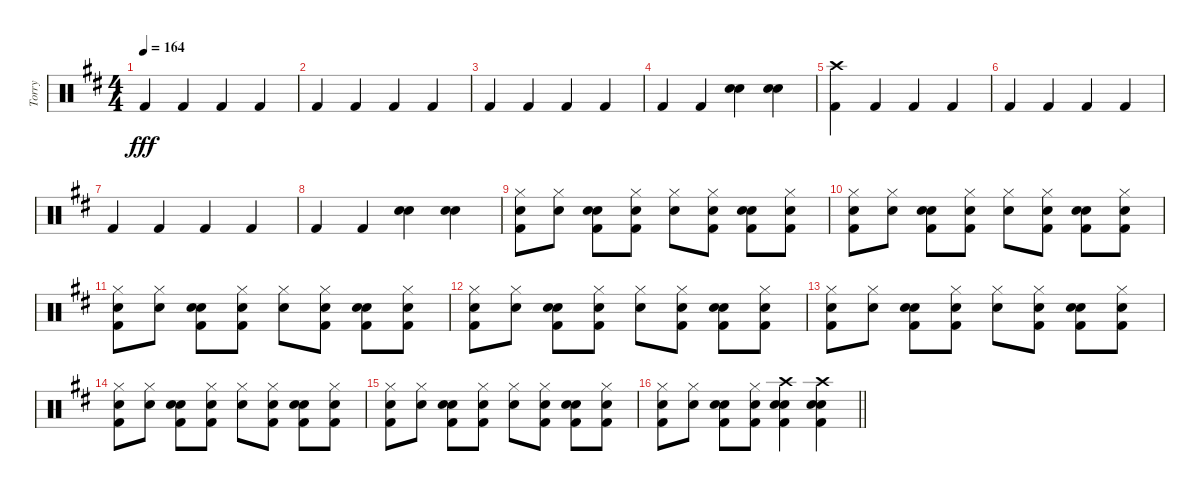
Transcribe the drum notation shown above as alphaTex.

\track ("Torry" "Torry") {instrument percussion}
\staff {score}
\articulation defaults
\ts (4 4)
\tempo 164
\clef neutral
\ks d "Kick (hit) 2".4{dy fff} "Kick (hit) 2".4 "Kick (hit) 2".4 "Kick (hit) 2".4
|
"Kick (hit) 2".4 "Kick (hit) 2".4 "Kick (hit) 2".4 "Kick (hit) 2".4 |
"Kick (hit) 2".4 "Kick (hit) 2".4 "Kick (hit) 2".4 "Kick (hit) 2".4 |
"Kick (hit) 2".4 "Kick (hit) 2".4 ("Snare (hit) 2" "Electric Snare (hit)").4 ("Snare (hit) 2" "Electric Snare (hit)").4 |
("Crash high (hit)" "Kick (hit) 2").4 "Kick (hit) 2".4 "Kick (hit) 2".4 "Kick (hit) 2".4 |
"Kick (hit) 2".4 "Kick (hit) 2".4 "Kick (hit) 2".4 "Kick (hit) 2".4 |
"Kick (hit) 2".4 "Kick (hit) 2".4 "Kick (hit) 2".4 "Kick (hit) 2".4 |
"Kick (hit) 2".4 "Kick (hit) 2".4 ("Snare (hit) 2" "Electric Snare (hit)").4 ("Snare (hit) 2" "Electric Snare (hit)").4 |
("Hi-Hat (closed)" "Snare (hit) 2" "Kick (hit) 2").8 ("Hi-Hat (closed)" "Snare (hit) 2").8 ("Electric Snare (hit)" "Snare (hit) 2" "Kick (hit) 2").8 ("Hi-Hat (closed)" "Snare (hit) 2" "Kick (hit) 2").8 ("Hi-Hat (closed)" "Snare (hit) 2").8 ("Hi-Hat (closed)" "Snare (hit) 2" "Kick (hit) 2").8 ("Electric Snare (hit)" "Snare (hit) 2" "Kick (hit) 2").8 ("Hi-Hat (closed)" "Snare (hit) 2" "Kick (hit) 2").8 |
("Hi-Hat (closed)" "Snare (hit) 2" "Kick (hit) 2").8 ("Hi-Hat (closed)" "Snare (hit) 2").8 ("Electric Snare (hit)" "Snare (hit) 2" "Kick (hit) 2").8 ("Hi-Hat (closed)" "Snare (hit) 2" "Kick (hit) 2").8 ("Hi-Hat (closed)" "Snare (hit) 2").8 ("Hi-Hat (closed)" "Snare (hit) 2" "Kick (hit) 2").8 ("Electric Snare (hit)" "Snare (hit) 2" "Kick (hit) 2").8 ("Hi-Hat (closed)" "Snare (hit) 2" "Kick (hit) 2").8 |
("Hi-Hat (closed)" "Snare (hit) 2" "Kick (hit) 2").8 ("Hi-Hat (closed)" "Snare (hit) 2").8 ("Electric Snare (hit)" "Snare (hit) 2" "Kick (hit) 2").8 ("Hi-Hat (closed)" "Snare (hit) 2" "Kick (hit) 2").8 ("Hi-Hat (closed)" "Snare (hit) 2").8 ("Hi-Hat (closed)" "Snare (hit) 2" "Kick (hit) 2").8 ("Electric Snare (hit)" "Snare (hit) 2" "Kick (hit) 2").8 ("Hi-Hat (closed)" "Snare (hit) 2" "Kick (hit) 2").8 |
("Hi-Hat (closed)" "Snare (hit) 2" "Kick (hit) 2").8 ("Hi-Hat (closed)" "Snare (hit) 2").8 ("Electric Snare (hit)" "Snare (hit) 2" "Kick (hit) 2").8 ("Hi-Hat (closed)" "Snare (hit) 2" "Kick (hit) 2").8 ("Hi-Hat (closed)" "Snare (hit) 2").8 ("Hi-Hat (closed)" "Snare (hit) 2" "Kick (hit) 2").8 ("Electric Snare (hit)" "Snare (hit) 2" "Kick (hit) 2").8 ("Hi-Hat (closed)" "Snare (hit) 2" "Kick (hit) 2").8 |
("Hi-Hat (closed)" "Snare (hit) 2" "Kick (hit) 2").8 ("Hi-Hat (closed)" "Snare (hit) 2").8 ("Electric Snare (hit)" "Snare (hit) 2" "Kick (hit) 2").8 ("Hi-Hat (closed)" "Snare (hit) 2" "Kick (hit) 2").8 ("Hi-Hat (closed)" "Snare (hit) 2").8 ("Hi-Hat (closed)" "Snare (hit) 2" "Kick (hit) 2").8 ("Electric Snare (hit)" "Snare (hit) 2" "Kick (hit) 2").8 ("Hi-Hat (closed)" "Snare (hit) 2" "Kick (hit) 2").8 |
("Hi-Hat (closed)" "Snare (hit) 2" "Kick (hit) 2").8 ("Hi-Hat (closed)" "Snare (hit) 2").8 ("Electric Snare (hit)" "Snare (hit) 2" "Kick (hit) 2").8 ("Hi-Hat (closed)" "Snare (hit) 2" "Kick (hit) 2").8 ("Hi-Hat (closed)" "Snare (hit) 2").8 ("Hi-Hat (closed)" "Snare (hit) 2" "Kick (hit) 2").8 ("Electric Snare (hit)" "Snare (hit) 2" "Kick (hit) 2").8 ("Hi-Hat (closed)" "Snare (hit) 2" "Kick (hit) 2").8 |
("Hi-Hat (closed)" "Snare (hit) 2" "Kick (hit) 2").8 ("Hi-Hat (closed)" "Snare (hit) 2").8 ("Electric Snare (hit)" "Snare (hit) 2" "Kick (hit) 2").8 ("Hi-Hat (closed)" "Snare (hit) 2" "Kick (hit) 2").8 ("Hi-Hat (closed)" "Snare (hit) 2").8 ("Hi-Hat (closed)" "Snare (hit) 2" "Kick (hit) 2").8 ("Electric Snare (hit)" "Snare (hit) 2" "Kick (hit) 2").8 ("Hi-Hat (closed)" "Snare (hit) 2" "Kick (hit) 2").8 |
\barLineRight lightlight
("Hi-Hat (closed)" "Snare (hit) 2" "Kick (hit) 2").8 ("Hi-Hat (closed)" "Snare (hit) 2").8 ("Electric Snare (hit)" "Snare (hit) 2" "Kick (hit) 2").8 ("Hi-Hat (closed)" "Snare (hit) 2" "Kick (hit) 2").8 ("Crash high (hit)" "Snare (hit) 2" "Electric Snare (hit)" "Kick (hit) 2").4 ("Crash high (hit)" "Snare (hit) 2" "Electric Snare (hit)" "Kick (hit) 2").4
